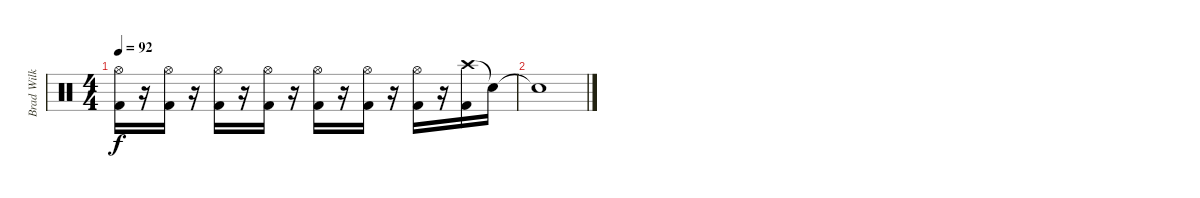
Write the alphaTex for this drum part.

\track ("Brad Wilk (Drums)" "Brad Wilk ") {instrument percussion}
\staff {score}
\articulation defaults
\ts (4 4)
\tempo 92
\clef neutral
\ks c
("Hi-Hat (open)" "Kick (hit) 2").16{dy f} r.16 ("Hi-Hat (open)" "Kick (hit) 2").16 r.16 ("Hi-Hat (open)" "Kick (hit) 2").16 r.16 ("Hi-Hat (open)" "Kick (hit) 2").16 r.16 ("Hi-Hat (open)" "Kick (hit) 2").16 r.16 ("Hi-Hat (open)" "Kick (hit) 2").16 r.16 ("Hi-Hat (open)" "Kick (hit) 2").16 r.16 ("Crash high (hit)" "Kick (hit) 2").16 "Snare (hit)"{t}.16 |
"Snare (hit)"{t}.1
